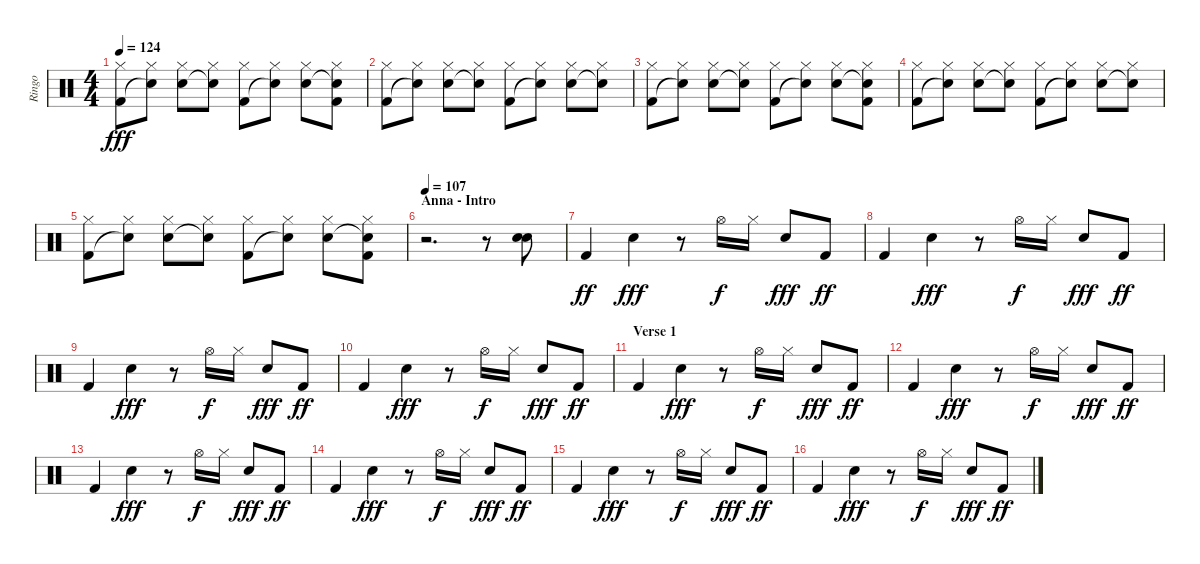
\track ("Ringo" "Ringo") {instrument percussion}
\staff {score}
\articulation defaults
\ts (4 4)
\tempo 124
\clef neutral
\ks c
("Hi-Hat (closed)" "Kick (hit) 2").8{dy fff} ("Hi-Hat (closed)" "Snare (hit)"{t}).8 ("Hi-Hat (closed)" "Snare (hit) 2").8 ("Hi-Hat (closed)" "Snare (hit)"{t}).8 ("Hi-Hat (closed)" "Kick (hit) 2").8 ("Hi-Hat (closed)" "Snare (hit)"{t}).8 ("Hi-Hat (closed)" "Snare (hit) 2").8 ("Hi-Hat (closed)" "Snare (hit)"{t} "Kick (hit) 2").8 |
("Hi-Hat (closed)" "Kick (hit) 2").8 ("Hi-Hat (closed)" "Snare (hit)"{t}).8 ("Hi-Hat (closed)" "Snare (hit) 2").8 ("Hi-Hat (closed)" "Snare (hit)"{t}).8 ("Hi-Hat (closed)" "Kick (hit) 2").8 ("Hi-Hat (closed)" "Snare (hit)"{t}).8 ("Hi-Hat (closed)" "Snare (hit) 2").8 ("Hi-Hat (closed)" "Snare (hit)"{t}).8 |
("Hi-Hat (closed)" "Kick (hit) 2").8 ("Hi-Hat (closed)" "Snare (hit)"{t}).8 ("Hi-Hat (closed)" "Snare (hit) 2").8 ("Hi-Hat (closed)" "Snare (hit)"{t}).8 ("Hi-Hat (closed)" "Kick (hit) 2").8 ("Hi-Hat (closed)" "Snare (hit)"{t}).8 ("Hi-Hat (closed)" "Snare (hit) 2").8 ("Hi-Hat (closed)" "Snare (hit)"{t} "Kick (hit) 2").8 |
("Hi-Hat (closed)" "Kick (hit) 2").8 ("Hi-Hat (closed)" "Snare (hit)"{t}).8 ("Hi-Hat (closed)" "Snare (hit) 2").8 ("Hi-Hat (closed)" "Snare (hit)"{t}).8 ("Hi-Hat (closed)" "Kick (hit) 2").8 ("Hi-Hat (closed)" "Snare (hit)"{t}).8 ("Hi-Hat (closed)" "Snare (hit) 2").8 ("Hi-Hat (closed)" "Snare (hit)"{t}).8 |
("Hi-Hat (closed)" "Kick (hit) 2").8 ("Hi-Hat (closed)" "Snare (hit)"{t}).8 ("Hi-Hat (closed)" "Snare (hit) 2").8 ("Hi-Hat (closed)" "Snare (hit)"{t}).8 ("Hi-Hat (closed)" "Kick (hit) 2").8 ("Hi-Hat (closed)" "Snare (hit)"{t}).8 ("Hi-Hat (closed)" "Snare (hit) 2").8 ("Hi-Hat (closed)" "Snare (hit)"{t} "Kick (hit) 2").8 |
\section ("" "Anna - Intro")
\tempo 107
r.2{d volume 15} r.8 ("Electric Snare (hit)" "Snare (hit) 2").8 |
"Kick (hit) 2".4{dy ff} "Snare (hit) 2".4{dy fff} r.8 "Hi-Hat (open)".16{dy f} "Hi-Hat (closed)".16 "Snare (hit) 2".8{dy fff} "Kick (hit) 2".8{dy ff} |
"Kick (hit) 2".4 "Snare (hit) 2".4{dy fff} r.8 "Hi-Hat (open)".16{dy f} "Hi-Hat (closed)".16 "Snare (hit) 2".8{dy fff} "Kick (hit) 2".8{dy ff} |
"Kick (hit) 2".4 "Snare (hit) 2".4{dy fff} r.8 "Hi-Hat (open)".16{dy f} "Hi-Hat (closed)".16 "Snare (hit) 2".8{dy fff} "Kick (hit) 2".8{dy ff} |
"Kick (hit) 2".4 "Snare (hit) 2".4{dy fff} r.8 "Hi-Hat (open)".16{dy f} "Hi-Hat (closed)".16 "Snare (hit) 2".8{dy fff} "Kick (hit) 2".8{dy ff} |
\section ("" "Verse 1")
"Kick (hit) 2".4 "Snare (hit) 2".4{dy fff} r.8 "Hi-Hat (open)".16{dy f} "Hi-Hat (closed)".16 "Snare (hit) 2".8{dy fff} "Kick (hit) 2".8{dy ff} |
"Kick (hit) 2".4 "Snare (hit) 2".4{dy fff} r.8 "Hi-Hat (open)".16{dy f} "Hi-Hat (closed)".16 "Snare (hit) 2".8{dy fff} "Kick (hit) 2".8{dy ff} |
"Kick (hit) 2".4 "Snare (hit) 2".4{dy fff} r.8 "Hi-Hat (open)".16{dy f} "Hi-Hat (closed)".16 "Snare (hit) 2".8{dy fff} "Kick (hit) 2".8{dy ff} |
"Kick (hit) 2".4 "Snare (hit) 2".4{dy fff} r.8 "Hi-Hat (open)".16{dy f} "Hi-Hat (closed)".16 "Snare (hit) 2".8{dy fff} "Kick (hit) 2".8{dy ff} |
"Kick (hit) 2".4 "Snare (hit) 2".4{dy fff} r.8 "Hi-Hat (open)".16{dy f} "Hi-Hat (closed)".16 "Snare (hit) 2".8{dy fff} "Kick (hit) 2".8{dy ff} |
"Kick (hit) 2".4 "Snare (hit) 2".4{dy fff} r.8 "Hi-Hat (open)".16{dy f} "Hi-Hat (closed)".16 "Snare (hit) 2".8{dy fff} "Kick (hit) 2".8{dy ff}
